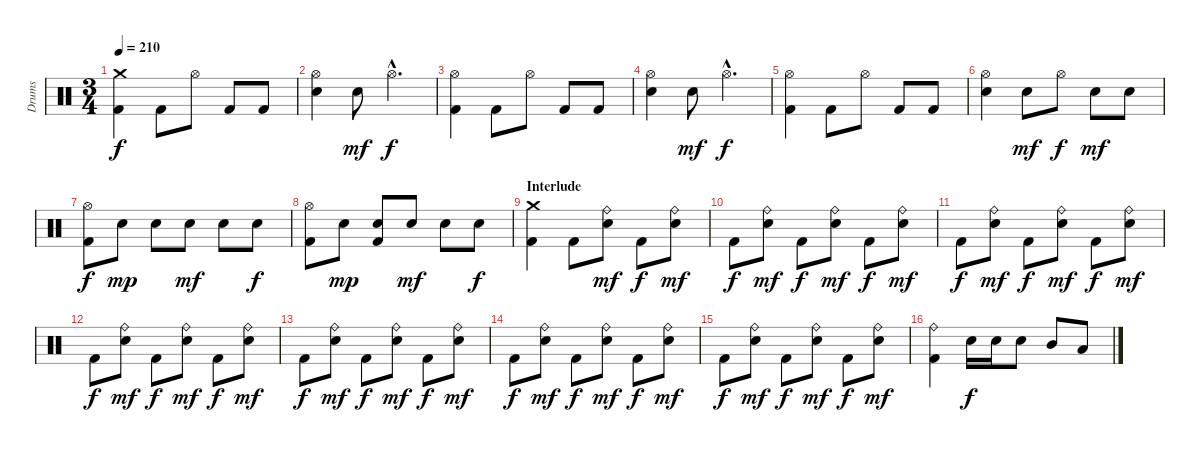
\track ("Drums" "Drums") {instrument percussion}
\staff {score}
\articulation defaults
\ts (3 4)
\tempo 210
\clef neutral
\ks c
("Crash medium (hit)" "Kick (hit) 2").4{dy f} "Kick (hit) 2".8 "Hi-Hat (open)".8 "Kick (hit) 2".8 "Kick (hit) 2".8 |
("Hi-Hat (open)" "Electric Snare (hit)").4 "Electric Snare (hit)".8{dy mf} "Hi-Hat (open)"{hac}.4{d dy f} |
("Hi-Hat (open)" "Kick (hit) 2").4 "Kick (hit) 2".8 "Hi-Hat (open)".8 "Kick (hit) 2".8 "Kick (hit) 2".8 |
("Hi-Hat (open)" "Electric Snare (hit)").4 "Electric Snare (hit)".8{dy mf} "Hi-Hat (open)"{hac}.4{d dy f} |
("Hi-Hat (open)" "Kick (hit) 2").4 "Kick (hit) 2".8 "Hi-Hat (open)".8 "Kick (hit) 2".8 "Kick (hit) 2".8 |
("Hi-Hat (open)" "Electric Snare (hit)").4 "Electric Snare (hit)".8{dy mf} "Hi-Hat (open)".8{dy f} "Electric Snare (hit)".8{dy mf} "Electric Snare (hit)".8 |
("Hi-Hat (open)" "Kick (hit) 2").8{dy f} "Electric Snare (hit)".8{dy mp} "Electric Snare (hit)".8 "Electric Snare (hit)".8{dy mf} "Electric Snare (hit)".8 "Electric Snare (hit)".8{dy f} |
("Hi-Hat (open)" "Kick (hit) 2").8 "Electric Snare (hit)".8{dy mp} ("Electric Snare (hit)" "Kick (hit) 2").8 "Electric Snare (hit)".8{dy mf} "Electric Snare (hit)".8 "Electric Snare (hit)".8{dy f} |
\section ("" "Interlude")
("Crash medium (hit)" "Kick (hit) 2").4{volume 15} "Kick (hit) 2".8 ("Ride (bell)" "Electric Snare (hit)").8{dy mf} "Kick (hit) 2".8{dy f} ("Ride (bell)" "Electric Snare (hit)").8{dy mf} |
"Kick (hit) 2".8{dy f} ("Ride (bell)" "Electric Snare (hit)").8{dy mf} "Kick (hit) 2".8{dy f} ("Ride (bell)" "Electric Snare (hit)").8{dy mf} "Kick (hit) 2".8{dy f} ("Ride (bell)" "Electric Snare (hit)").8{dy mf} |
"Kick (hit) 2".8{dy f} ("Ride (bell)" "Electric Snare (hit)").8{dy mf} "Kick (hit) 2".8{dy f} ("Ride (bell)" "Electric Snare (hit)").8{dy mf} "Kick (hit) 2".8{dy f} ("Ride (bell)" "Electric Snare (hit)").8{dy mf} |
"Kick (hit) 2".8{dy f} ("Ride (bell)" "Electric Snare (hit)").8{dy mf} "Kick (hit) 2".8{dy f} ("Ride (bell)" "Electric Snare (hit)").8{dy mf} "Kick (hit) 2".8{dy f} ("Ride (bell)" "Electric Snare (hit)").8{dy mf} |
"Kick (hit) 2".8{dy f} ("Ride (bell)" "Electric Snare (hit)").8{dy mf} "Kick (hit) 2".8{dy f} ("Ride (bell)" "Electric Snare (hit)").8{dy mf} "Kick (hit) 2".8{dy f} ("Ride (bell)" "Electric Snare (hit)").8{dy mf} |
"Kick (hit) 2".8{dy f} ("Ride (bell)" "Electric Snare (hit)").8{dy mf} "Kick (hit) 2".8{dy f} ("Ride (bell)" "Electric Snare (hit)").8{dy mf} "Kick (hit) 2".8{dy f} ("Ride (bell)" "Electric Snare (hit)").8{dy mf} |
"Kick (hit) 2".8{dy f} ("Ride (bell)" "Electric Snare (hit)").8{dy mf} "Kick (hit) 2".8{dy f} ("Ride (bell)" "Electric Snare (hit)").8{dy mf} "Kick (hit) 2".8{dy f} ("Ride (bell)" "Electric Snare (hit)").8{dy mf} |
("Ride (bell)" "Kick (hit) 2").4 "Electric Snare (hit)".16{dy f} "Electric Snare (hit)".16 "Electric Snare (hit)".8 "Mid Tom (hit)".8 "Low Tom (hit)".8
